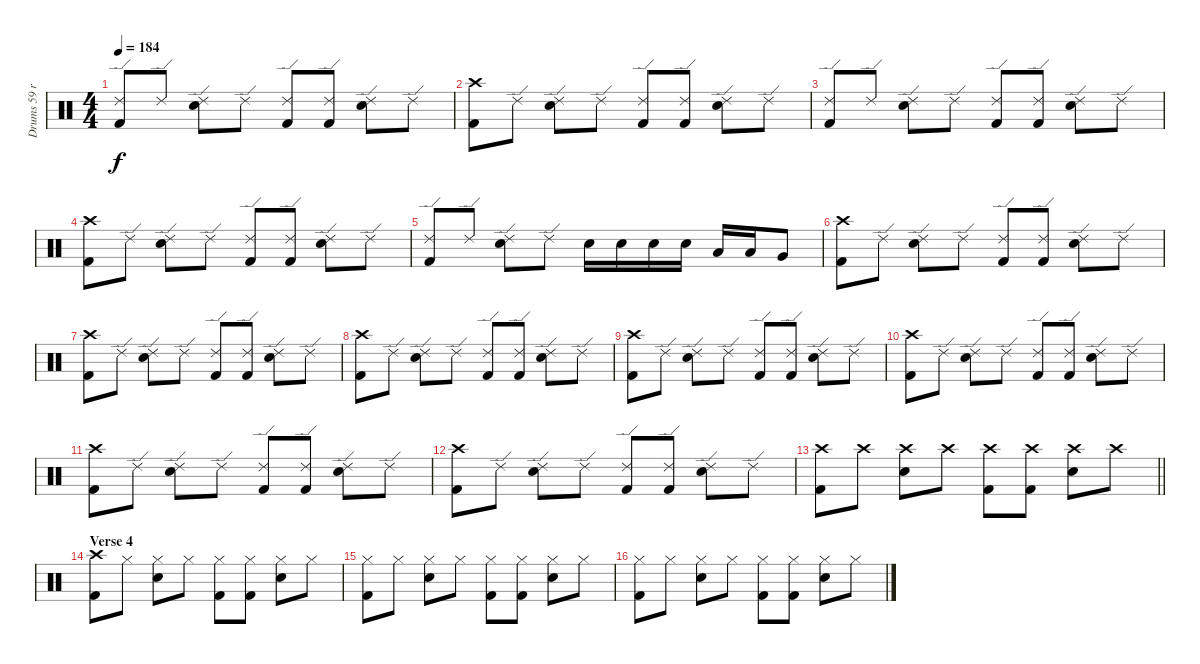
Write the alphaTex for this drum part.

\track ("Drums 59 ride" "Drums 59 r") {mute instrument percussion}
\staff {score}
\articulation defaults
\ts (4 4)
\tempo 184
\clef neutral
\ks c
("Ride (edge) 2" "Kick (hit) 2").8{dy f} "Ride (edge) 2".8 ("Ride (edge) 2" "Snare (hit) 2").8 "Ride (edge) 2".8 ("Ride (edge) 2" "Kick (hit) 2").8 ("Ride (edge) 2" "Kick (hit) 2").8 ("Ride (edge) 2" "Snare (hit) 2").8 "Ride (edge) 2".8 |
("Crash high (hit)" "Kick (hit) 2").8 "Ride (edge) 2".8 ("Ride (edge) 2" "Snare (hit) 2").8 "Ride (edge) 2".8 ("Ride (edge) 2" "Kick (hit) 2").8 ("Ride (edge) 2" "Kick (hit) 2").8 ("Ride (edge) 2" "Snare (hit) 2").8 "Ride (edge) 2".8 |
("Ride (edge) 2" "Kick (hit) 2").8 "Ride (edge) 2".8 ("Ride (edge) 2" "Snare (hit) 2").8 "Ride (edge) 2".8 ("Ride (edge) 2" "Kick (hit) 2").8 ("Ride (edge) 2" "Kick (hit) 2").8 ("Ride (edge) 2" "Snare (hit) 2").8 "Ride (edge) 2".8 |
("Crash high (hit)" "Kick (hit) 2").8 "Ride (edge) 2".8 ("Ride (edge) 2" "Snare (hit) 2").8 "Ride (edge) 2".8 ("Ride (edge) 2" "Kick (hit) 2").8 ("Ride (edge) 2" "Kick (hit) 2").8 ("Ride (edge) 2" "Snare (hit) 2").8 "Ride (edge) 2".8 |
("Ride (edge) 2" "Kick (hit) 2").8 "Ride (edge) 2".8 ("Ride (edge) 2" "Snare (hit) 2").8 "Ride (edge) 2".8 "Snare (hit) 2".16 "Snare (hit) 2".16 "Snare (hit) 2".16 "Snare (hit) 2".16 "Low Tom (hit)".16 "Low Tom (hit)".16 "Very Low Tom (hit)".8 |
("Crash high (hit)" "Kick (hit) 2").8 "Ride (edge) 2".8 ("Ride (edge) 2" "Snare (hit) 2").8 "Ride (edge) 2".8 ("Ride (edge) 2" "Kick (hit) 2").8 ("Ride (edge) 2" "Kick (hit) 2").8 ("Ride (edge) 2" "Snare (hit) 2").8 "Ride (edge) 2".8 |
("Crash high (hit)" "Kick (hit) 2").8 "Ride (edge) 2".8 ("Ride (edge) 2" "Snare (hit) 2").8 "Ride (edge) 2".8 ("Ride (edge) 2" "Kick (hit) 2").8 ("Ride (edge) 2" "Kick (hit) 2").8 ("Ride (edge) 2" "Snare (hit) 2").8 "Ride (edge) 2".8 |
("Crash high (hit)" "Kick (hit) 2").8 "Ride (edge) 2".8 ("Ride (edge) 2" "Snare (hit) 2").8 "Ride (edge) 2".8 ("Ride (edge) 2" "Kick (hit) 2").8 ("Ride (edge) 2" "Kick (hit) 2").8 ("Ride (edge) 2" "Snare (hit) 2").8 "Ride (edge) 2".8 |
("Crash high (hit)" "Kick (hit) 2").8 "Ride (edge) 2".8 ("Ride (edge) 2" "Snare (hit) 2").8 "Ride (edge) 2".8 ("Ride (edge) 2" "Kick (hit) 2").8 ("Ride (edge) 2" "Kick (hit) 2").8 ("Ride (edge) 2" "Snare (hit) 2").8 "Ride (edge) 2".8 |
("Crash high (hit)" "Kick (hit) 2").8 "Ride (edge) 2".8 ("Ride (edge) 2" "Snare (hit) 2").8 "Ride (edge) 2".8 ("Ride (edge) 2" "Kick (hit) 2").8 ("Ride (edge) 2" "Kick (hit) 2").8 ("Ride (edge) 2" "Snare (hit) 2").8 "Ride (edge) 2".8 |
("Crash high (hit)" "Kick (hit) 2").8 "Ride (edge) 2".8 ("Ride (edge) 2" "Snare (hit) 2").8 "Ride (edge) 2".8 ("Ride (edge) 2" "Kick (hit) 2").8 ("Ride (edge) 2" "Kick (hit) 2").8 ("Ride (edge) 2" "Snare (hit) 2").8 "Ride (edge) 2".8 |
("Crash high (hit)" "Kick (hit) 2").8 "Ride (edge) 2".8 ("Ride (edge) 2" "Snare (hit) 2").8 "Ride (edge) 2".8 ("Ride (edge) 2" "Kick (hit) 2").8 ("Ride (edge) 2" "Kick (hit) 2").8 ("Ride (edge) 2" "Snare (hit) 2").8 "Ride (edge) 2".8 |
\barLineRight lightlight
("Crash high (hit)" "Kick (hit) 2").8 "Crash high (hit)".8 ("Crash high (hit)" "Snare (hit) 2").8 "Crash high (hit)".8 ("Crash high (hit)" "Kick (hit) 2").8 ("Crash high (hit)" "Kick (hit) 2").8 ("Crash high (hit)" "Snare (hit) 2").8 "Crash high (hit)".8 |
\section ("" "Verse 4")
("Crash high (hit)" "Kick (hit) 2").8 "Hi-Hat (closed)".8 ("Hi-Hat (closed)" "Snare (hit) 2").8 "Hi-Hat (closed)".8 ("Hi-Hat (closed)" "Kick (hit) 2").8 ("Hi-Hat (closed)" "Kick (hit) 2").8 ("Hi-Hat (closed)" "Snare (hit) 2").8 "Hi-Hat (closed)".8 |
("Hi-Hat (closed)" "Kick (hit) 2").8 "Hi-Hat (closed)".8 ("Hi-Hat (closed)" "Snare (hit) 2").8 "Hi-Hat (closed)".8 ("Hi-Hat (closed)" "Kick (hit) 2").8 ("Hi-Hat (closed)" "Kick (hit) 2").8 ("Hi-Hat (closed)" "Snare (hit) 2").8 "Hi-Hat (closed)".8 |
("Hi-Hat (closed)" "Kick (hit) 2").8 "Hi-Hat (closed)".8 ("Hi-Hat (closed)" "Snare (hit) 2").8 "Hi-Hat (closed)".8 ("Hi-Hat (closed)" "Kick (hit) 2").8 ("Hi-Hat (closed)" "Kick (hit) 2").8 ("Hi-Hat (closed)" "Snare (hit) 2").8 "Hi-Hat (closed)".8
